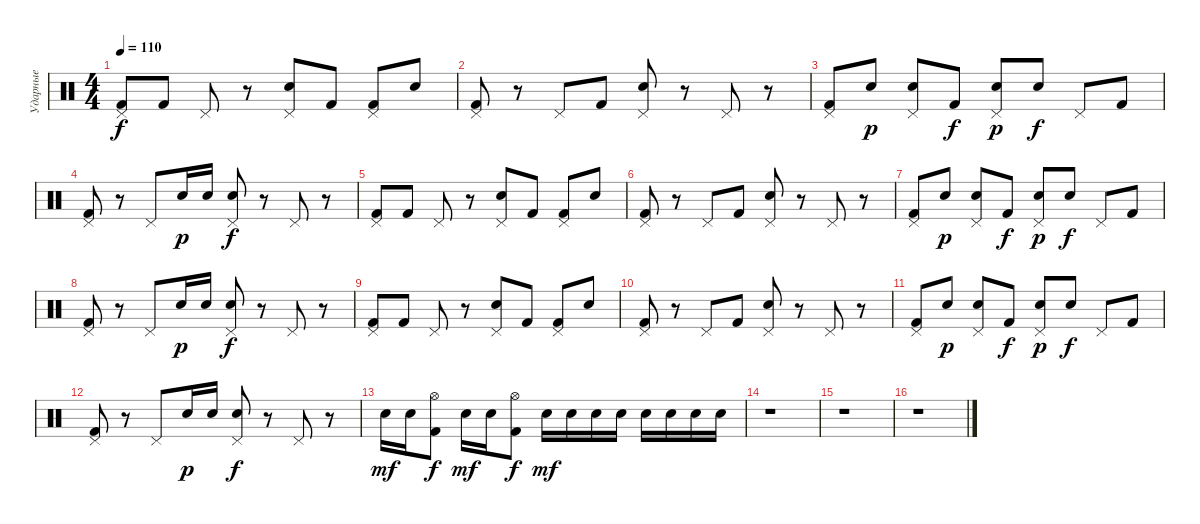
\track ("Ударные" "Ударные") {instrument percussion}
\staff {score}
\articulation defaults
\ts (4 4)
\tempo 110
\clef neutral
\ks c
("Pedal Hi-Hat (hit)" "Kick (hit) 2").8{dy f volume 13} "Kick (hit) 2".8 "Pedal Hi-Hat (hit)".8 r.8 ("Pedal Hi-Hat (hit)" "Electric Snare (hit)").8 "Kick (hit) 2".8 ("Pedal Hi-Hat (hit)" "Kick (hit) 2").8 "Electric Snare (hit)".8 |
("Pedal Hi-Hat (hit)" "Kick (hit) 2").8{volume 13} r.8 "Pedal Hi-Hat (hit)".8 "Kick (hit) 2".8 ("Pedal Hi-Hat (hit)" "Electric Snare (hit)").8 r.8 "Pedal Hi-Hat (hit)".8 r.8 |
("Pedal Hi-Hat (hit)" "Kick (hit) 2").8{volume 13} "Electric Snare (hit)".8{dy p} ("Pedal Hi-Hat (hit)" "Electric Snare (hit)").8 "Kick (hit) 2".8{dy f} ("Pedal Hi-Hat (hit)" "Electric Snare (hit)").8{dy p} "Electric Snare (hit)".8{dy f} "Pedal Hi-Hat (hit)".8 "Kick (hit) 2".8 |
("Pedal Hi-Hat (hit)" "Kick (hit) 2").8{volume 13} r.8 "Pedal Hi-Hat (hit)".8 "Electric Snare (hit)".16{dy p} "Electric Snare (hit)".16 ("Pedal Hi-Hat (hit)" "Electric Snare (hit)").8{dy f} r.8 "Pedal Hi-Hat (hit)".8 r.8 |
("Pedal Hi-Hat (hit)" "Kick (hit) 2").8{volume 13} "Kick (hit) 2".8 "Pedal Hi-Hat (hit)".8 r.8 ("Pedal Hi-Hat (hit)" "Electric Snare (hit)").8 "Kick (hit) 2".8 ("Pedal Hi-Hat (hit)" "Kick (hit) 2").8 "Electric Snare (hit)".8 |
("Pedal Hi-Hat (hit)" "Kick (hit) 2").8{volume 13} r.8 "Pedal Hi-Hat (hit)".8 "Kick (hit) 2".8 ("Pedal Hi-Hat (hit)" "Electric Snare (hit)").8 r.8 "Pedal Hi-Hat (hit)".8 r.8 |
("Pedal Hi-Hat (hit)" "Kick (hit) 2").8{volume 13} "Electric Snare (hit)".8{dy p} ("Pedal Hi-Hat (hit)" "Electric Snare (hit)").8 "Kick (hit) 2".8{dy f} ("Pedal Hi-Hat (hit)" "Electric Snare (hit)").8{dy p} "Electric Snare (hit)".8{dy f} "Pedal Hi-Hat (hit)".8 "Kick (hit) 2".8 |
("Pedal Hi-Hat (hit)" "Kick (hit) 2").8{volume 13} r.8 "Pedal Hi-Hat (hit)".8 "Electric Snare (hit)".16{dy p} "Electric Snare (hit)".16 ("Pedal Hi-Hat (hit)" "Electric Snare (hit)").8{dy f} r.8 "Pedal Hi-Hat (hit)".8 r.8 |
("Pedal Hi-Hat (hit)" "Kick (hit) 2").8{volume 13} "Kick (hit) 2".8 "Pedal Hi-Hat (hit)".8 r.8 ("Pedal Hi-Hat (hit)" "Electric Snare (hit)").8 "Kick (hit) 2".8 ("Pedal Hi-Hat (hit)" "Kick (hit) 2").8 "Electric Snare (hit)".8 |
("Pedal Hi-Hat (hit)" "Kick (hit) 2").8{volume 13} r.8 "Pedal Hi-Hat (hit)".8 "Kick (hit) 2".8 ("Pedal Hi-Hat (hit)" "Electric Snare (hit)").8 r.8 "Pedal Hi-Hat (hit)".8 r.8 |
("Pedal Hi-Hat (hit)" "Kick (hit) 2").8{volume 13} "Electric Snare (hit)".8{dy p} ("Pedal Hi-Hat (hit)" "Electric Snare (hit)").8 "Kick (hit) 2".8{dy f} ("Pedal Hi-Hat (hit)" "Electric Snare (hit)").8{dy p} "Electric Snare (hit)".8{dy f} "Pedal Hi-Hat (hit)".8 "Kick (hit) 2".8 |
("Pedal Hi-Hat (hit)" "Kick (hit) 2").8{volume 13} r.8 "Pedal Hi-Hat (hit)".8 "Electric Snare (hit)".16{dy p} "Electric Snare (hit)".16 ("Pedal Hi-Hat (hit)" "Electric Snare (hit)").8{dy f} r.8 "Pedal Hi-Hat (hit)".8 r.8 |
"Electric Snare (hit)".16{dy mf} "Electric Snare (hit)".16 ("Hi-Hat (open)" "Kick (hit) 2").8{dy f} "Electric Snare (hit)".16{dy mf} "Electric Snare (hit)".16 ("Hi-Hat (open)" "Kick (hit) 2").8{dy f} "Electric Snare (hit)".16{dy mf} "Electric Snare (hit)".16 "Electric Snare (hit)".16 "Electric Snare (hit)".16 "Electric Snare (hit)".16 "Electric Snare (hit)".16 "Electric Snare (hit)".16 "Electric Snare (hit)".16 |
r.1 |
r.1 |
r.1
